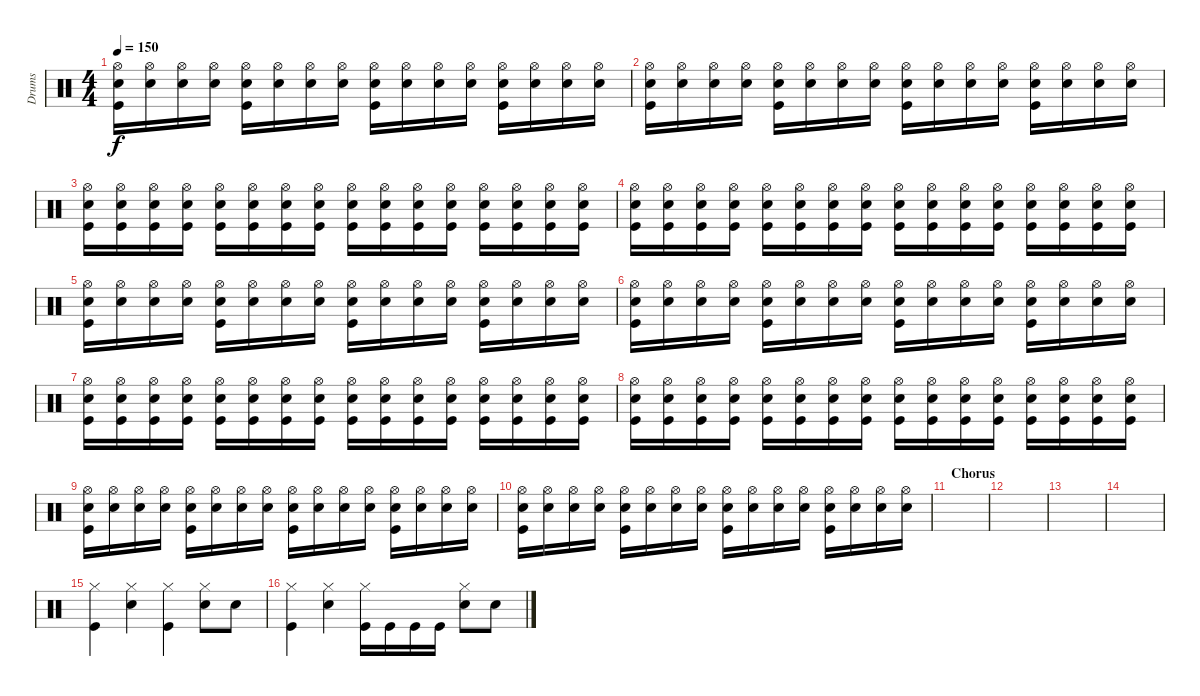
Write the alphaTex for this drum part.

\track ("Drums" "Drums") {instrument percussion}
\staff {score}
\articulation defaults
\ts (4 4)
\tempo 150
\clef neutral
\ks c
("Kick (hit)" "Electric Snare (hit)" "Hi-Hat (open)").16{dy f} ("Electric Snare (hit)" "Hi-Hat (open)").16 ("Electric Snare (hit)" "Hi-Hat (open)").16 ("Electric Snare (hit)" "Hi-Hat (open)").16 ("Kick (hit)" "Electric Snare (hit)" "Hi-Hat (open)").16 ("Electric Snare (hit)" "Hi-Hat (open)").16 ("Electric Snare (hit)" "Hi-Hat (open)").16 ("Electric Snare (hit)" "Hi-Hat (open)").16 ("Kick (hit)" "Electric Snare (hit)" "Hi-Hat (open)").16 ("Electric Snare (hit)" "Hi-Hat (open)").16 ("Electric Snare (hit)" "Hi-Hat (open)").16 ("Electric Snare (hit)" "Hi-Hat (open)").16 ("Kick (hit)" "Electric Snare (hit)" "Hi-Hat (open)").16 ("Electric Snare (hit)" "Hi-Hat (open)").16 ("Electric Snare (hit)" "Hi-Hat (open)").16 ("Electric Snare (hit)" "Hi-Hat (open)").16 |
("Kick (hit)" "Electric Snare (hit)" "Hi-Hat (open)").16 ("Electric Snare (hit)" "Hi-Hat (open)").16 ("Electric Snare (hit)" "Hi-Hat (open)").16 ("Electric Snare (hit)" "Hi-Hat (open)").16 ("Kick (hit)" "Electric Snare (hit)" "Hi-Hat (open)").16 ("Electric Snare (hit)" "Hi-Hat (open)").16 ("Electric Snare (hit)" "Hi-Hat (open)").16 ("Electric Snare (hit)" "Hi-Hat (open)").16 ("Kick (hit)" "Electric Snare (hit)" "Hi-Hat (open)").16 ("Electric Snare (hit)" "Hi-Hat (open)").16 ("Electric Snare (hit)" "Hi-Hat (open)").16 ("Electric Snare (hit)" "Hi-Hat (open)").16 ("Kick (hit)" "Electric Snare (hit)" "Hi-Hat (open)").16 ("Electric Snare (hit)" "Hi-Hat (open)").16 ("Electric Snare (hit)" "Hi-Hat (open)").16 ("Electric Snare (hit)" "Hi-Hat (open)").16 |
("Kick (hit)" "Electric Snare (hit)" "Hi-Hat (open)").16 ("Kick (hit)" "Electric Snare (hit)" "Hi-Hat (open)").16 ("Kick (hit)" "Electric Snare (hit)" "Hi-Hat (open)").16 ("Kick (hit)" "Electric Snare (hit)" "Hi-Hat (open)").16 ("Kick (hit)" "Electric Snare (hit)" "Hi-Hat (open)").16 ("Kick (hit)" "Electric Snare (hit)" "Hi-Hat (open)").16 ("Kick (hit)" "Electric Snare (hit)" "Hi-Hat (open)").16 ("Kick (hit)" "Electric Snare (hit)" "Hi-Hat (open)").16 ("Kick (hit)" "Electric Snare (hit)" "Hi-Hat (open)").16 ("Kick (hit)" "Electric Snare (hit)" "Hi-Hat (open)").16 ("Kick (hit)" "Electric Snare (hit)" "Hi-Hat (open)").16 ("Kick (hit)" "Electric Snare (hit)" "Hi-Hat (open)").16 ("Kick (hit)" "Electric Snare (hit)" "Hi-Hat (open)").16 ("Kick (hit)" "Electric Snare (hit)" "Hi-Hat (open)").16 ("Kick (hit)" "Electric Snare (hit)" "Hi-Hat (open)").16 ("Kick (hit)" "Electric Snare (hit)" "Hi-Hat (open)").16 |
("Kick (hit)" "Electric Snare (hit)" "Hi-Hat (open)").16 ("Kick (hit)" "Electric Snare (hit)" "Hi-Hat (open)").16 ("Kick (hit)" "Electric Snare (hit)" "Hi-Hat (open)").16 ("Kick (hit)" "Electric Snare (hit)" "Hi-Hat (open)").16 ("Kick (hit)" "Electric Snare (hit)" "Hi-Hat (open)").16 ("Kick (hit)" "Electric Snare (hit)" "Hi-Hat (open)").16 ("Kick (hit)" "Electric Snare (hit)" "Hi-Hat (open)").16 ("Kick (hit)" "Electric Snare (hit)" "Hi-Hat (open)").16 ("Kick (hit)" "Electric Snare (hit)" "Hi-Hat (open)").16 ("Kick (hit)" "Electric Snare (hit)" "Hi-Hat (open)").16 ("Kick (hit)" "Electric Snare (hit)" "Hi-Hat (open)").16 ("Kick (hit)" "Electric Snare (hit)" "Hi-Hat (open)").16 ("Kick (hit)" "Electric Snare (hit)" "Hi-Hat (open)").16 ("Kick (hit)" "Electric Snare (hit)" "Hi-Hat (open)").16 ("Kick (hit)" "Electric Snare (hit)" "Hi-Hat (open)").16 ("Kick (hit)" "Electric Snare (hit)" "Hi-Hat (open)").16 |
("Kick (hit)" "Electric Snare (hit)" "Hi-Hat (open)").16 ("Electric Snare (hit)" "Hi-Hat (open)").16 ("Electric Snare (hit)" "Hi-Hat (open)").16 ("Electric Snare (hit)" "Hi-Hat (open)").16 ("Kick (hit)" "Electric Snare (hit)" "Hi-Hat (open)").16 ("Electric Snare (hit)" "Hi-Hat (open)").16 ("Electric Snare (hit)" "Hi-Hat (open)").16 ("Electric Snare (hit)" "Hi-Hat (open)").16 ("Kick (hit)" "Electric Snare (hit)" "Hi-Hat (open)").16 ("Electric Snare (hit)" "Hi-Hat (open)").16 ("Electric Snare (hit)" "Hi-Hat (open)").16 ("Electric Snare (hit)" "Hi-Hat (open)").16 ("Kick (hit)" "Electric Snare (hit)" "Hi-Hat (open)").16 ("Electric Snare (hit)" "Hi-Hat (open)").16 ("Electric Snare (hit)" "Hi-Hat (open)").16 ("Electric Snare (hit)" "Hi-Hat (open)").16 |
("Kick (hit)" "Electric Snare (hit)" "Hi-Hat (open)").16 ("Electric Snare (hit)" "Hi-Hat (open)").16 ("Electric Snare (hit)" "Hi-Hat (open)").16 ("Electric Snare (hit)" "Hi-Hat (open)").16 ("Kick (hit)" "Electric Snare (hit)" "Hi-Hat (open)").16 ("Electric Snare (hit)" "Hi-Hat (open)").16 ("Electric Snare (hit)" "Hi-Hat (open)").16 ("Electric Snare (hit)" "Hi-Hat (open)").16 ("Kick (hit)" "Electric Snare (hit)" "Hi-Hat (open)").16 ("Electric Snare (hit)" "Hi-Hat (open)").16 ("Electric Snare (hit)" "Hi-Hat (open)").16 ("Electric Snare (hit)" "Hi-Hat (open)").16 ("Kick (hit)" "Electric Snare (hit)" "Hi-Hat (open)").16 ("Electric Snare (hit)" "Hi-Hat (open)").16 ("Electric Snare (hit)" "Hi-Hat (open)").16 ("Electric Snare (hit)" "Hi-Hat (open)").16 |
("Kick (hit)" "Electric Snare (hit)" "Hi-Hat (open)").16 ("Kick (hit)" "Electric Snare (hit)" "Hi-Hat (open)").16 ("Kick (hit)" "Electric Snare (hit)" "Hi-Hat (open)").16 ("Kick (hit)" "Electric Snare (hit)" "Hi-Hat (open)").16 ("Kick (hit)" "Electric Snare (hit)" "Hi-Hat (open)").16 ("Kick (hit)" "Electric Snare (hit)" "Hi-Hat (open)").16 ("Kick (hit)" "Electric Snare (hit)" "Hi-Hat (open)").16 ("Kick (hit)" "Electric Snare (hit)" "Hi-Hat (open)").16 ("Kick (hit)" "Electric Snare (hit)" "Hi-Hat (open)").16 ("Kick (hit)" "Electric Snare (hit)" "Hi-Hat (open)").16 ("Kick (hit)" "Electric Snare (hit)" "Hi-Hat (open)").16 ("Kick (hit)" "Electric Snare (hit)" "Hi-Hat (open)").16 ("Kick (hit)" "Electric Snare (hit)" "Hi-Hat (open)").16 ("Kick (hit)" "Electric Snare (hit)" "Hi-Hat (open)").16 ("Kick (hit)" "Electric Snare (hit)" "Hi-Hat (open)").16 ("Kick (hit)" "Electric Snare (hit)" "Hi-Hat (open)").16 |
("Kick (hit)" "Electric Snare (hit)" "Hi-Hat (open)").16 ("Kick (hit)" "Electric Snare (hit)" "Hi-Hat (open)").16 ("Kick (hit)" "Electric Snare (hit)" "Hi-Hat (open)").16 ("Kick (hit)" "Electric Snare (hit)" "Hi-Hat (open)").16 ("Kick (hit)" "Electric Snare (hit)" "Hi-Hat (open)").16 ("Kick (hit)" "Electric Snare (hit)" "Hi-Hat (open)").16 ("Kick (hit)" "Electric Snare (hit)" "Hi-Hat (open)").16 ("Kick (hit)" "Electric Snare (hit)" "Hi-Hat (open)").16 ("Kick (hit)" "Electric Snare (hit)" "Hi-Hat (open)").16 ("Kick (hit)" "Electric Snare (hit)" "Hi-Hat (open)").16 ("Kick (hit)" "Electric Snare (hit)" "Hi-Hat (open)").16 ("Kick (hit)" "Electric Snare (hit)" "Hi-Hat (open)").16 ("Kick (hit)" "Electric Snare (hit)" "Hi-Hat (open)").16 ("Kick (hit)" "Electric Snare (hit)" "Hi-Hat (open)").16 ("Kick (hit)" "Electric Snare (hit)" "Hi-Hat (open)").16 ("Kick (hit)" "Electric Snare (hit)" "Hi-Hat (open)").16 |
("Kick (hit)" "Electric Snare (hit)" "Hi-Hat (open)").16 ("Electric Snare (hit)" "Hi-Hat (open)").16 ("Electric Snare (hit)" "Hi-Hat (open)").16 ("Electric Snare (hit)" "Hi-Hat (open)").16 ("Kick (hit)" "Electric Snare (hit)" "Hi-Hat (open)").16 ("Electric Snare (hit)" "Hi-Hat (open)").16 ("Electric Snare (hit)" "Hi-Hat (open)").16 ("Electric Snare (hit)" "Hi-Hat (open)").16 ("Kick (hit)" "Electric Snare (hit)" "Hi-Hat (open)").16 ("Electric Snare (hit)" "Hi-Hat (open)").16 ("Electric Snare (hit)" "Hi-Hat (open)").16 ("Electric Snare (hit)" "Hi-Hat (open)").16 ("Kick (hit)" "Electric Snare (hit)" "Hi-Hat (open)").16 ("Electric Snare (hit)" "Hi-Hat (open)").16 ("Electric Snare (hit)" "Hi-Hat (open)").16 ("Electric Snare (hit)" "Hi-Hat (open)").16 |
("Kick (hit)" "Electric Snare (hit)" "Hi-Hat (open)").16 ("Electric Snare (hit)" "Hi-Hat (open)").16 ("Electric Snare (hit)" "Hi-Hat (open)").16 ("Electric Snare (hit)" "Hi-Hat (open)").16 ("Kick (hit)" "Electric Snare (hit)" "Hi-Hat (open)").16 ("Electric Snare (hit)" "Hi-Hat (open)").16 ("Electric Snare (hit)" "Hi-Hat (open)").16 ("Electric Snare (hit)" "Hi-Hat (open)").16 ("Kick (hit)" "Electric Snare (hit)" "Hi-Hat (open)").16 ("Electric Snare (hit)" "Hi-Hat (open)").16 ("Electric Snare (hit)" "Hi-Hat (open)").16 ("Electric Snare (hit)" "Hi-Hat (open)").16 ("Kick (hit)" "Electric Snare (hit)" "Hi-Hat (open)").16 ("Electric Snare (hit)" "Hi-Hat (open)").16 ("Electric Snare (hit)" "Hi-Hat (open)").16 ("Electric Snare (hit)" "Hi-Hat (open)").16 |
\section ("" "Chorus")
|
|
|
|
("Kick (hit)" "Hi-Hat (closed)").4 ("Electric Snare (hit)" "Hi-Hat (closed)").4 ("Kick (hit)" "Hi-Hat (closed)").4 ("Electric Snare (hit)" "Hi-Hat (closed)").8 "Electric Snare (hit)".8 |
("Kick (hit)" "Hi-Hat (closed)").4 ("Electric Snare (hit)" "Hi-Hat (closed)").4 ("Kick (hit)" "Hi-Hat (closed)").16 "Kick (hit)".16 "Kick (hit)".16 "Kick (hit)".16 ("Electric Snare (hit)" "Hi-Hat (closed)").8 "Electric Snare (hit)".8
